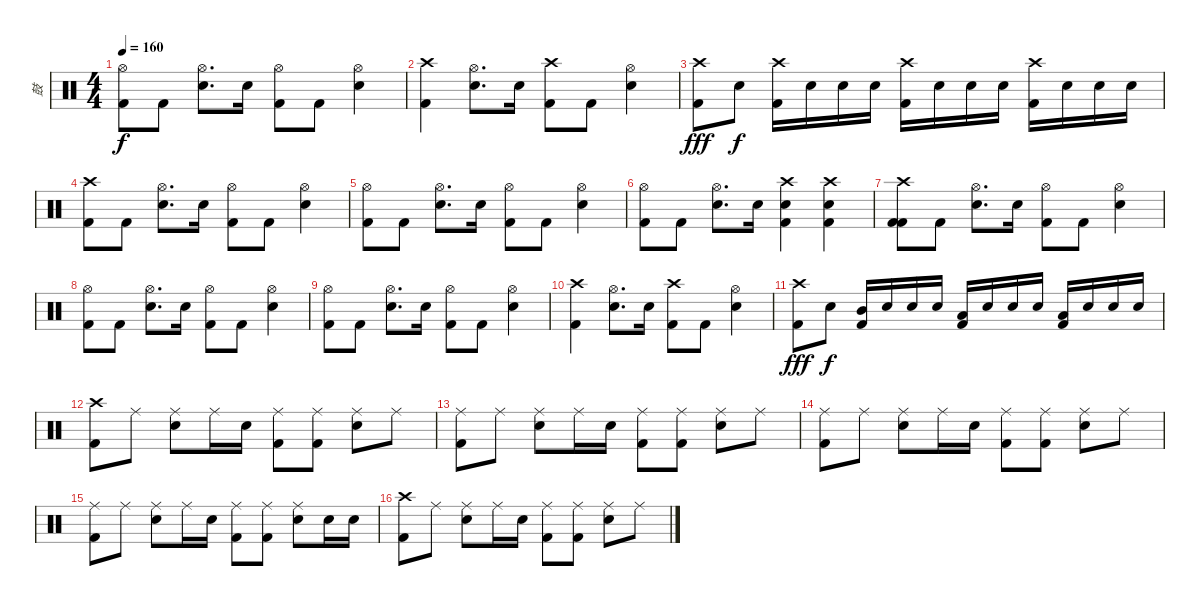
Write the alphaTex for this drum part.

\track ("鼓" "鼓") {instrument percussion}
\staff {score}
\articulation defaults
\ts (4 4)
\tempo 160
\clef neutral
\ks c
("Hi-Hat (open)" "Kick (hit) 2").8{dy f} "Kick (hit) 2".8 ("Hi-Hat (open)" "Snare (hit) 2").8{d} "Snare (hit) 2".16 ("Hi-Hat (open)" "Kick (hit) 2").8 "Kick (hit) 2".8 ("Hi-Hat (open)" "Snare (hit) 2").4 |
("Crash high (hit)" "Kick (hit) 2").4 ("Hi-Hat (open)" "Snare (hit) 2").8{d} "Snare (hit) 2".16 ("Crash high (hit)" "Kick (hit) 2").8 "Kick (hit) 2".8 ("Hi-Hat (open)" "Snare (hit) 2").4 |
("Crash high (hit)" "Kick (hit) 2").8{dy fff} "Snare (hit) 2".8{dy f} ("Crash high (hit)" "Kick (hit) 2").16 "Snare (hit) 2".16 "Snare (hit) 2".16 "Snare (hit) 2".16 ("Crash high (hit)" "Kick (hit) 2").16 "Snare (hit) 2".16 "Snare (hit) 2".16 "Snare (hit) 2".16 ("Crash high (hit)" "Kick (hit) 2").16 "Snare (hit) 2".16 "Snare (hit) 2".16 "Snare (hit) 2".16 |
("Crash high (hit)" "Kick (hit) 2").8 "Kick (hit) 2".8 ("Hi-Hat (open)" "Snare (hit) 2").8{d} "Snare (hit) 2".16 ("Hi-Hat (open)" "Kick (hit) 2").8 "Kick (hit) 2".8 ("Hi-Hat (open)" "Snare (hit) 2").4 |
("Hi-Hat (open)" "Kick (hit) 2").8 "Kick (hit) 2".8 ("Hi-Hat (open)" "Snare (hit) 2").8{d} "Snare (hit) 2".16 ("Hi-Hat (open)" "Kick (hit) 2").8 "Kick (hit) 2".8 ("Hi-Hat (open)" "Snare (hit) 2").4 |
("Hi-Hat (open)" "Kick (hit) 2").8 "Kick (hit) 2".8 ("Hi-Hat (open)" "Snare (hit) 2").8{d} "Snare (hit) 2".16 ("Crash high (hit)" "Snare (hit) 2" "Kick (hit) 2").4 ("Crash high (hit)" "Snare (hit) 2" "Kick (hit) 2").4 |
("Crash high (hit)" "Kick (hit) 2" "Kick (hit) 2").8 "Kick (hit) 2".8 ("Hi-Hat (open)" "Snare (hit) 2").8{d} "Snare (hit) 2".16 ("Hi-Hat (open)" "Kick (hit) 2").8 "Kick (hit) 2".8 ("Hi-Hat (open)" "Snare (hit) 2").4 |
("Hi-Hat (open)" "Kick (hit) 2").8 "Kick (hit) 2".8 ("Hi-Hat (open)" "Snare (hit) 2").8{d} "Snare (hit) 2".16 ("Hi-Hat (open)" "Kick (hit) 2").8 "Kick (hit) 2".8 ("Hi-Hat (open)" "Snare (hit) 2").4 |
("Hi-Hat (open)" "Kick (hit) 2").8 "Kick (hit) 2".8 ("Hi-Hat (open)" "Snare (hit) 2").8{d} "Snare (hit) 2".16 ("Hi-Hat (open)" "Kick (hit) 2").8 "Kick (hit) 2".8 ("Hi-Hat (open)" "Snare (hit) 2").4 |
("Crash high (hit)" "Kick (hit) 2").4 ("Hi-Hat (open)" "Snare (hit) 2").8{d} "Snare (hit) 2".16 ("Crash high (hit)" "Kick (hit) 2").8 "Kick (hit) 2".8 ("Hi-Hat (open)" "Snare (hit) 2").4 |
("Crash high (hit)" "Kick (hit) 2").8{dy fff} "Snare (hit) 2".8{dy f} ("Mid Tom (hit)" "Kick (hit) 2").16 "Snare (hit) 2".16 "Snare (hit) 2".16 "Snare (hit) 2".16 ("Low Tom (hit)" "Kick (hit) 2").16 "Snare (hit) 2".16 "Snare (hit) 2".16 "Snare (hit) 2".16 ("Low Floor Tom (hit)" "Kick (hit) 2").16 "Snare (hit) 2".16 "Snare (hit) 2".16 "Snare (hit) 2".16 |
("Crash high (hit)" "Kick (hit) 2").8 "Ride (middle)".8 ("Ride (middle)" "Snare (hit) 2").8 "Ride (middle)".16 "Snare (hit) 2".16 ("Ride (middle)" "Kick (hit) 2").8 ("Ride (middle)" "Kick (hit) 2").8 ("Ride (middle)" "Snare (hit) 2").8 "Ride (middle)".8 |
("Ride (middle)" "Kick (hit) 2").8 "Ride (middle)".8 ("Ride (middle)" "Snare (hit) 2").8 "Ride (middle)".16 "Snare (hit) 2".16 ("Ride (middle)" "Kick (hit) 2").8 ("Ride (middle)" "Kick (hit) 2").8 ("Ride (middle)" "Snare (hit) 2").8 "Ride (middle)".8 |
("Ride (middle)" "Kick (hit) 2").8 "Ride (middle)".8 ("Ride (middle)" "Snare (hit) 2").8 "Ride (middle)".16 "Snare (hit) 2".16 ("Ride (middle)" "Kick (hit) 2").8 ("Ride (middle)" "Kick (hit) 2").8 ("Ride (middle)" "Snare (hit) 2").8 "Ride (middle)".8 |
("Ride (middle)" "Kick (hit) 2").8 "Ride (middle)".8 ("Ride (middle)" "Snare (hit) 2").8 "Ride (middle)".16 "Snare (hit) 2".16 ("Ride (middle)" "Kick (hit) 2").8 ("Ride (middle)" "Kick (hit) 2").8 ("Ride (middle)" "Snare (hit) 2").8 "Snare (hit) 2".16 "Snare (hit) 2".16 |
("Crash high (hit)" "Kick (hit) 2").8 "Ride (middle)".8 ("Ride (middle)" "Snare (hit) 2").8 "Ride (middle)".16 "Snare (hit) 2".16 ("Ride (middle)" "Kick (hit) 2").8 ("Ride (middle)" "Kick (hit) 2").8 ("Ride (middle)" "Snare (hit) 2").8 "Ride (middle)".8
